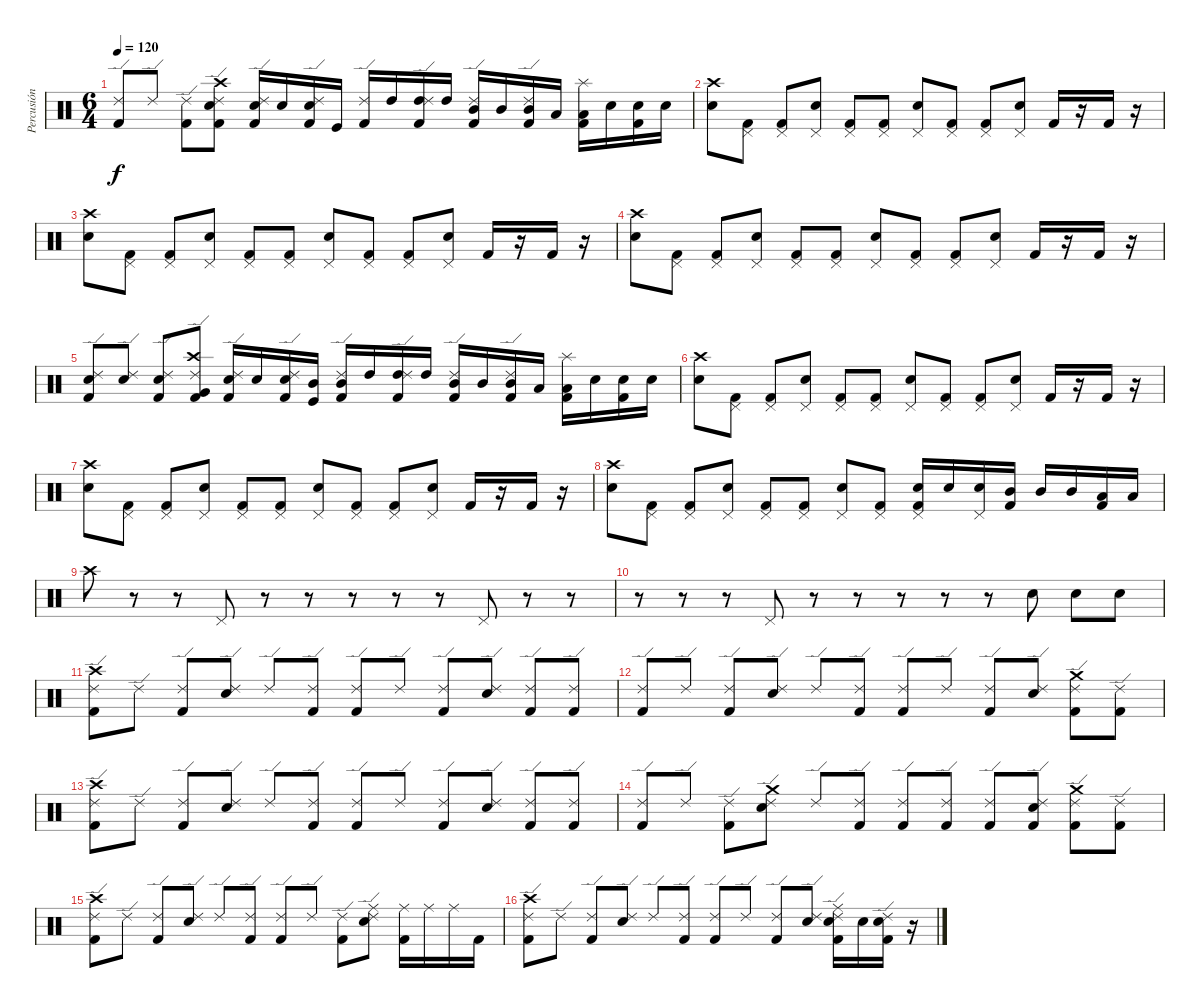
\track ("Percusión" "Percusión") {instrument percussion}
\staff {score}
\articulation defaults
\ts (6 4)
\tempo 120
\clef neutral
\ks c
("Kick (hit) 2" "Ride (edge) 2").8{dy f} "Ride (edge) 2".8 ("Kick (hit) 2" "Ride (edge) 2").8 ("Kick (hit) 2" "Snare (hit) 2" "Crash high (hit)" "Ride (edge) 2").8 ("Kick (hit) 2" "Snare (hit) 2" "Ride (edge) 2").16 "Snare (hit) 2".16 ("Kick (hit) 2" "Snare (hit) 2" "Ride (edge) 2").16 "Kick (hit)".16 ("Kick (hit) 2" "Ride (edge) 2").16 "High Tom (hit)".16 ("Kick (hit) 2" "High Tom (hit)" "Ride (edge) 2").16 "High Tom (hit)".16 ("Kick (hit) 2" "Mid Tom (hit)" "Ride (edge) 2").16 "Mid Tom (hit)".16 ("Kick (hit) 2" "Mid Tom (hit)" "Ride (edge) 2").16 "Low Tom (hit)".16 ("Kick (hit) 2" "Low Tom (hit)" "Splash (hit)").16 "Snare (hit) 2".16 ("Kick (hit) 2" "Snare (hit) 2").16 "Snare (hit) 2".16 |
("Snare (hit) 2" "Crash high (hit)").8 ("Kick (hit) 2" "Pedal Hi-Hat (hit)").8 ("Kick (hit) 2" "Pedal Hi-Hat (hit)").8 ("Snare (hit) 2" "Pedal Hi-Hat (hit)").8 ("Kick (hit) 2" "Pedal Hi-Hat (hit)").8 ("Kick (hit) 2" "Pedal Hi-Hat (hit)").8 ("Snare (hit) 2" "Pedal Hi-Hat (hit)").8 ("Kick (hit) 2" "Pedal Hi-Hat (hit)").8 ("Kick (hit) 2" "Pedal Hi-Hat (hit)").8 ("Snare (hit) 2" "Pedal Hi-Hat (hit)").8 "Kick (hit) 2".16 r.16 "Kick (hit) 2".16 r.16 |
("Snare (hit) 2" "Crash high (hit)").8 ("Kick (hit) 2" "Pedal Hi-Hat (hit)").8 ("Kick (hit) 2" "Pedal Hi-Hat (hit)").8 ("Snare (hit) 2" "Pedal Hi-Hat (hit)").8 ("Kick (hit) 2" "Pedal Hi-Hat (hit)").8 ("Kick (hit) 2" "Pedal Hi-Hat (hit)").8 ("Snare (hit) 2" "Pedal Hi-Hat (hit)").8 ("Kick (hit) 2" "Pedal Hi-Hat (hit)").8 ("Kick (hit) 2" "Pedal Hi-Hat (hit)").8 ("Snare (hit) 2" "Pedal Hi-Hat (hit)").8 "Kick (hit) 2".16 r.16 "Kick (hit) 2".16 r.16 |
("Snare (hit) 2" "Crash high (hit)").8 ("Kick (hit) 2" "Pedal Hi-Hat (hit)").8 ("Kick (hit) 2" "Pedal Hi-Hat (hit)").8 ("Snare (hit) 2" "Pedal Hi-Hat (hit)").8 ("Kick (hit) 2" "Pedal Hi-Hat (hit)").8 ("Kick (hit) 2" "Pedal Hi-Hat (hit)").8 ("Snare (hit) 2" "Pedal Hi-Hat (hit)").8 ("Kick (hit) 2" "Pedal Hi-Hat (hit)").8 ("Kick (hit) 2" "Pedal Hi-Hat (hit)").8 ("Snare (hit) 2" "Pedal Hi-Hat (hit)").8 "Kick (hit) 2".16 r.16 "Kick (hit) 2".16 r.16 |
("Kick (hit) 2" "Snare (hit) 2" "Ride (edge) 2").8 ("Snare (hit) 2" "Ride (edge) 2").8 ("Kick (hit) 2" "Snare (hit) 2" "Ride (edge) 2").8 ("Kick (hit) 2" "Very Low Tom (hit)" "Crash high (hit)" "Ride (edge) 2").8 ("Kick (hit) 2" "Snare (hit) 2" "Ride (edge) 2").16 "Snare (hit) 2".16 ("Kick (hit) 2" "Snare (hit) 2" "Ride (edge) 2").16 ("Kick (hit)" "Mid Tom (hit)").16 ("Kick (hit) 2" "Mid Tom (hit)" "Ride (edge) 2").16 "High Tom (hit)".16 ("Kick (hit) 2" "High Tom (hit)" "Ride (edge) 2").16 "High Tom (hit)".16 ("Kick (hit) 2" "Mid Tom (hit)" "Ride (edge) 2").16 "Mid Tom (hit)".16 ("Kick (hit) 2" "Mid Tom (hit)" "Ride (edge) 2").16 "Low Tom (hit)".16 ("Kick (hit) 2" "Low Tom (hit)" "Splash (hit)").16 "Snare (hit) 2".16 ("Kick (hit) 2" "Snare (hit) 2").16 "Snare (hit) 2".16 |
("Snare (hit) 2" "Crash high (hit)").8 ("Kick (hit) 2" "Pedal Hi-Hat (hit)").8 ("Kick (hit) 2" "Pedal Hi-Hat (hit)").8 ("Snare (hit) 2" "Pedal Hi-Hat (hit)").8 ("Kick (hit) 2" "Pedal Hi-Hat (hit)").8 ("Kick (hit) 2" "Pedal Hi-Hat (hit)").8 ("Snare (hit) 2" "Pedal Hi-Hat (hit)").8 ("Kick (hit) 2" "Pedal Hi-Hat (hit)").8 ("Kick (hit) 2" "Pedal Hi-Hat (hit)").8 ("Snare (hit) 2" "Pedal Hi-Hat (hit)").8 "Kick (hit) 2".16 r.16 "Kick (hit) 2".16 r.16 |
("Snare (hit) 2" "Crash high (hit)").8 ("Kick (hit) 2" "Pedal Hi-Hat (hit)").8 ("Kick (hit) 2" "Pedal Hi-Hat (hit)").8 ("Snare (hit) 2" "Pedal Hi-Hat (hit)").8 ("Kick (hit) 2" "Pedal Hi-Hat (hit)").8 ("Kick (hit) 2" "Pedal Hi-Hat (hit)").8 ("Snare (hit) 2" "Pedal Hi-Hat (hit)").8 ("Kick (hit) 2" "Pedal Hi-Hat (hit)").8 ("Kick (hit) 2" "Pedal Hi-Hat (hit)").8 ("Snare (hit) 2" "Pedal Hi-Hat (hit)").8 "Kick (hit) 2".16 r.16 "Kick (hit) 2".16 r.16 |
("Snare (hit) 2" "Crash high (hit)").8 ("Kick (hit) 2" "Pedal Hi-Hat (hit)").8 ("Kick (hit) 2" "Pedal Hi-Hat (hit)").8 ("Snare (hit) 2" "Pedal Hi-Hat (hit)").8 ("Kick (hit) 2" "Pedal Hi-Hat (hit)").8 ("Kick (hit) 2" "Pedal Hi-Hat (hit)").8 ("Snare (hit) 2" "Pedal Hi-Hat (hit)").8 ("Kick (hit) 2" "Pedal Hi-Hat (hit)").8 ("Kick (hit) 2" "Snare (hit) 2" "Pedal Hi-Hat (hit)").16 "Snare (hit) 2".16 ("Snare (hit) 2" "Pedal Hi-Hat (hit)").16 ("Kick (hit) 2" "Mid Tom (hit)").16 "Mid Tom (hit)".16 "Mid Tom (hit)".16 ("Kick (hit) 2" "Low Tom (hit)").16 "Low Tom (hit)".16 |
"Crash high (hit)".8 r.8 r.8 "Pedal Hi-Hat (hit)".8 r.8 r.8 r.8 r.8 r.8 "Pedal Hi-Hat (hit)".8 r.8 r.8 |
r.8 r.8 r.8 "Pedal Hi-Hat (hit)".8 r.8 r.8 r.8 r.8 r.8 "Snare (hit) 2".8 "Snare (hit) 2".8 "Snare (hit) 2".8 |
("Kick (hit) 2" "Crash high (hit)" "Ride (edge) 2").8 "Ride (edge) 2".8 ("Kick (hit) 2" "Ride (edge) 2").8 ("Snare (hit) 2" "Ride (edge) 2").8 "Ride (edge) 2".8 ("Kick (hit) 2" "Ride (edge) 2").8 ("Kick (hit) 2" "Ride (edge) 2").8 "Ride (edge) 2".8 ("Kick (hit) 2" "Ride (edge) 2").8 ("Snare (hit) 2" "Ride (edge) 2").8 ("Kick (hit) 2" "Ride (edge) 2").8 ("Kick (hit) 2" "Ride (edge) 2").8 |
("Kick (hit) 2" "Ride (edge) 2").8 "Ride (edge) 2".8 ("Kick (hit) 2" "Ride (edge) 2").8 ("Snare (hit) 2" "Ride (edge) 2").8 "Ride (edge) 2".8 ("Kick (hit) 2" "Ride (edge) 2").8 ("Kick (hit) 2" "Ride (edge) 2").8 "Ride (edge) 2".8 ("Kick (hit) 2" "Ride (edge) 2").8 ("Snare (hit) 2" "Ride (edge) 2").8 ("Kick (hit) 2" "Crash medium (hit)" "Ride (edge) 2").8 ("Kick (hit) 2" "Ride (edge) 2").8 |
("Kick (hit) 2" "Crash high (hit)" "Ride (edge) 2").8 "Ride (edge) 2".8 ("Kick (hit) 2" "Ride (edge) 2").8 ("Snare (hit) 2" "Ride (edge) 2").8 "Ride (edge) 2".8 ("Kick (hit) 2" "Ride (edge) 2").8 ("Kick (hit) 2" "Ride (edge) 2").8 "Ride (edge) 2".8 ("Kick (hit) 2" "Ride (edge) 2").8 ("Snare (hit) 2" "Ride (edge) 2").8 ("Kick (hit) 2" "Ride (edge) 2").8 ("Kick (hit) 2" "Ride (edge) 2").8 |
("Kick (hit) 2" "Ride (edge) 2").8 "Ride (edge) 2".8 ("Kick (hit) 2" "Ride (edge) 2").8 ("Snare (hit) 2" "Crash medium (hit)" "Ride (edge) 2").8 "Ride (edge) 2".8 ("Kick (hit) 2" "Ride (edge) 2").8 ("Kick (hit) 2" "Ride (edge) 2").8 ("Kick (hit) 2" "Ride (edge) 2").8 ("Kick (hit) 2" "Ride (edge) 2").8 ("Kick (hit) 2" "Snare (hit) 2" "Ride (edge) 2").8 ("Kick (hit) 2" "Crash medium (hit)" "Ride (edge) 2").8 ("Kick (hit) 2" "Ride (edge) 2").8 |
("Kick (hit) 2" "Crash high (hit)" "Ride (edge) 2").8 "Ride (edge) 2".8 ("Kick (hit) 2" "Ride (edge) 2").8 ("Snare (hit) 2" "Ride (edge) 2").8 "Ride (edge) 2".8 ("Kick (hit) 2" "Ride (edge) 2").8 ("Kick (hit) 2" "Ride (edge) 2").8 "Ride (edge) 2".8 ("Kick (hit) 2" "Ride (edge) 2").8 ("Snare (hit) 2" "Ride (middle)" "Ride (edge) 2").8 ("Kick (hit) 2" "Ride (middle)").16 "Ride (middle)".16 "Ride (middle)".16 "Kick (hit) 2".16 |
("Kick (hit) 2" "Crash high (hit)" "Ride (edge) 2").8 "Ride (edge) 2".8 ("Kick (hit) 2" "Ride (edge) 2").8 ("Snare (hit) 2" "Ride (edge) 2").8 "Ride (edge) 2".8 ("Kick (hit) 2" "Ride (edge) 2").8 ("Kick (hit) 2" "Ride (edge) 2").8 "Ride (edge) 2".8 ("Kick (hit) 2" "Ride (edge) 2").8 ("Snare (hit) 2" "Ride (edge) 2").8 ("Kick (hit) 2" "Snare (hit) 2" "Ride (middle)" "Ride (edge) 2").16 "Snare (hit) 2".16 ("Kick (hit) 2" "Snare (hit) 2" "Ride (edge) 2").16 r.16
